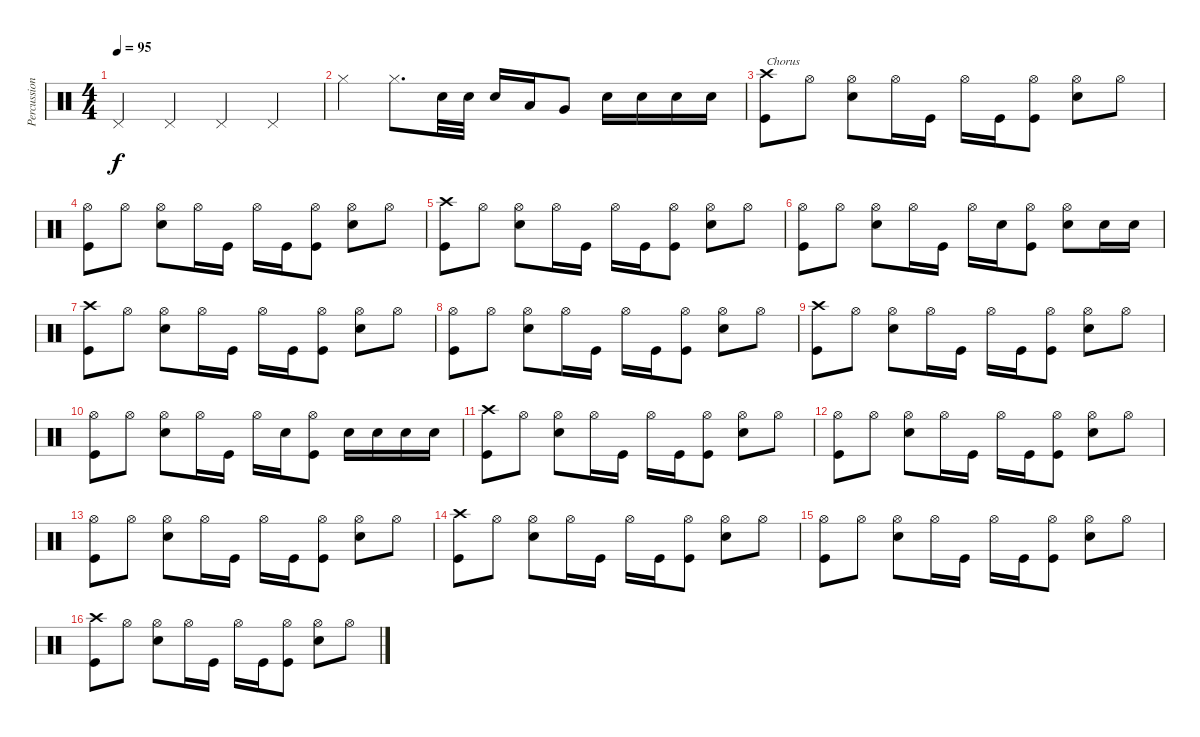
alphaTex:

\track ("Percussion" "Percussion") {instrument percussion}
\staff {score}
\articulation defaults
\ts (4 4)
\tempo 95
\clef neutral
\ks c "Pedal Hi-Hat (hit)".4{dy f} "Pedal Hi-Hat (hit)".4 "Pedal Hi-Hat (hit)".4 "Pedal Hi-Hat (hit)".4
|
"Hi-Hat (closed)".4 "Hi-Hat (closed)".8{d} "Electric Snare (hit)".32 "Electric Snare (hit)".32 "Electric Snare (hit)".16 "Low Tom (hit)".16 "Very Low Tom (hit)".8 "Electric Snare (hit)".16 "Electric Snare (hit)".16 "Electric Snare (hit)".16 "Electric Snare (hit)".16 |
("Crash high (hit)" "Kick (hit)").8{txt "Chorus"} "Hi-Hat (open)".8 ("Hi-Hat (open)" "Snare (hit) 2").8 "Hi-Hat (open)".16 "Kick (hit)".16 "Hi-Hat (open)".16 "Kick (hit)".16 ("Hi-Hat (open)" "Kick (hit)").8 ("Hi-Hat (open)" "Snare (hit) 2").8 "Hi-Hat (open)".8 |
("Hi-Hat (open)" "Kick (hit)").8 "Hi-Hat (open)".8 ("Hi-Hat (open)" "Snare (hit) 2").8 "Hi-Hat (open)".16 "Kick (hit)".16 "Hi-Hat (open)".16 "Kick (hit)".16 ("Hi-Hat (open)" "Kick (hit)").8 ("Hi-Hat (open)" "Snare (hit) 2").8 "Hi-Hat (open)".8 |
("Crash high (hit)" "Kick (hit)").8 "Hi-Hat (open)".8 ("Hi-Hat (open)" "Snare (hit) 2").8 "Hi-Hat (open)".16 "Kick (hit)".16 "Hi-Hat (open)".16 "Kick (hit)".16 ("Hi-Hat (open)" "Kick (hit)").8 ("Hi-Hat (open)" "Snare (hit) 2").8 "Hi-Hat (open)".8 |
("Hi-Hat (open)" "Kick (hit)").8 "Hi-Hat (open)".8 ("Hi-Hat (open)" "Snare (hit) 2").8 "Hi-Hat (open)".16 "Kick (hit)".16 "Hi-Hat (open)".16 "Snare (hit) 2".16 ("Hi-Hat (open)" "Kick (hit)").8 ("Hi-Hat (open)" "Snare (hit) 2").8 "Snare (hit) 2".16 "Snare (hit) 2".16 |
("Crash high (hit)" "Kick (hit)").8 "Hi-Hat (open)".8 ("Hi-Hat (open)" "Snare (hit) 2").8 "Hi-Hat (open)".16 "Kick (hit)".16 "Hi-Hat (open)".16 "Kick (hit)".16 ("Hi-Hat (open)" "Kick (hit)").8 ("Hi-Hat (open)" "Snare (hit) 2").8 "Hi-Hat (open)".8 |
("Hi-Hat (open)" "Kick (hit)").8 "Hi-Hat (open)".8 ("Hi-Hat (open)" "Snare (hit) 2").8 "Hi-Hat (open)".16 "Kick (hit)".16 "Hi-Hat (open)".16 "Kick (hit)".16 ("Hi-Hat (open)" "Kick (hit)").8 ("Hi-Hat (open)" "Snare (hit) 2").8 "Hi-Hat (open)".8 |
("Crash high (hit)" "Kick (hit)").8 "Hi-Hat (open)".8 ("Hi-Hat (open)" "Snare (hit) 2").8 "Hi-Hat (open)".16 "Kick (hit)".16 "Hi-Hat (open)".16 "Kick (hit)".16 ("Hi-Hat (open)" "Kick (hit)").8 ("Hi-Hat (open)" "Snare (hit) 2").8 "Hi-Hat (open)".8 |
("Hi-Hat (open)" "Kick (hit)").8 "Hi-Hat (open)".8 ("Hi-Hat (open)" "Snare (hit) 2").8 "Hi-Hat (open)".16 "Kick (hit)".16 "Hi-Hat (open)".16 "Snare (hit) 2".16 ("Hi-Hat (open)" "Kick (hit)").8 "Snare (hit) 2".16 "Snare (hit) 2".16 "Snare (hit) 2".16 "Snare (hit) 2".16 |
("Crash high (hit)" "Kick (hit)").8 "Hi-Hat (open)".8 ("Hi-Hat (open)" "Snare (hit) 2").8 "Hi-Hat (open)".16 "Kick (hit)".16 "Hi-Hat (open)".16 "Kick (hit)".16 ("Hi-Hat (open)" "Kick (hit)").8 ("Hi-Hat (open)" "Snare (hit) 2").8 "Hi-Hat (open)".8 |
("Hi-Hat (open)" "Kick (hit)").8 "Hi-Hat (open)".8 ("Hi-Hat (open)" "Snare (hit) 2").8 "Hi-Hat (open)".16 "Kick (hit)".16 "Hi-Hat (open)".16 "Kick (hit)".16 ("Hi-Hat (open)" "Kick (hit)").8 ("Hi-Hat (open)" "Snare (hit) 2").8 "Hi-Hat (open)".8 |
("Hi-Hat (open)" "Kick (hit)").8 "Hi-Hat (open)".8 ("Hi-Hat (open)" "Snare (hit) 2").8 "Hi-Hat (open)".16 "Kick (hit)".16 "Hi-Hat (open)".16 "Kick (hit)".16 ("Hi-Hat (open)" "Kick (hit)").8 ("Hi-Hat (open)" "Snare (hit) 2").8 "Hi-Hat (open)".8 |
("Crash high (hit)" "Kick (hit)").8 "Hi-Hat (open)".8 ("Hi-Hat (open)" "Snare (hit) 2").8 "Hi-Hat (open)".16 "Kick (hit)".16 "Hi-Hat (open)".16 "Kick (hit)".16 ("Hi-Hat (open)" "Kick (hit)").8 ("Hi-Hat (open)" "Snare (hit) 2").8 "Hi-Hat (open)".8 |
("Hi-Hat (open)" "Kick (hit)").8 "Hi-Hat (open)".8 ("Hi-Hat (open)" "Snare (hit) 2").8 "Hi-Hat (open)".16 "Kick (hit)".16 "Hi-Hat (open)".16 "Kick (hit)".16 ("Hi-Hat (open)" "Kick (hit)").8 ("Hi-Hat (open)" "Snare (hit) 2").8 "Hi-Hat (open)".8 |
("Crash high (hit)" "Kick (hit)").8 "Hi-Hat (open)".8 ("Hi-Hat (open)" "Snare (hit) 2").8 "Hi-Hat (open)".16 "Kick (hit)".16 "Hi-Hat (open)".16 "Kick (hit)".16 ("Hi-Hat (open)" "Kick (hit)").8 ("Hi-Hat (open)" "Snare (hit) 2").8 "Hi-Hat (open)".8
